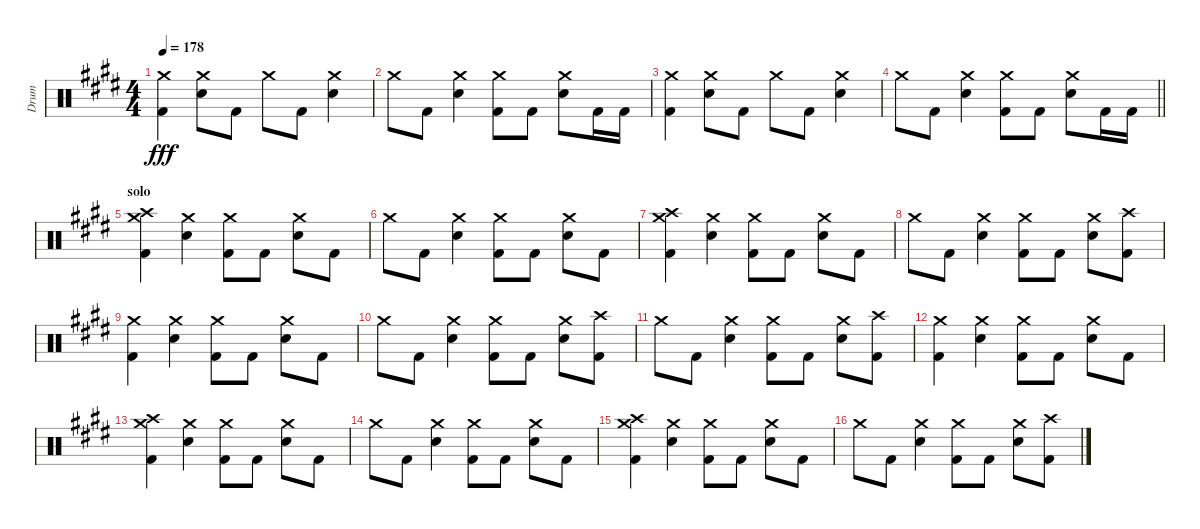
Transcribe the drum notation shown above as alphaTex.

\track ("Drum" "Drum") {instrument percussion}
\staff {score}
\articulation defaults
\ts (4 4)
\tempo 178
\clef neutral
\ks e
("Crash medium (hit)" "Kick (hit) 2").4{dy fff} ("Crash medium (hit)" "Electric Snare (hit)").8 "Kick (hit) 2".8 "Crash medium (hit)".8 "Kick (hit) 2".8 ("Crash medium (hit)" "Electric Snare (hit)").4 |
"Crash medium (hit)".8 "Kick (hit) 2".8 ("Crash medium (hit)" "Electric Snare (hit)").4 ("Crash medium (hit)" "Kick (hit) 2").8 "Kick (hit) 2".8 ("Crash medium (hit)" "Electric Snare (hit)").8 "Kick (hit) 2".16 "Kick (hit) 2".16 |
("Crash medium (hit)" "Kick (hit) 2").4 ("Crash medium (hit)" "Electric Snare (hit)").8 "Kick (hit) 2".8 "Crash medium (hit)".8 "Kick (hit) 2".8 ("Crash medium (hit)" "Electric Snare (hit)").4 |
\barLineRight lightlight "Crash medium (hit)".8 "Kick (hit) 2".8
("Crash medium (hit)" "Electric Snare (hit)").4 ("Crash medium (hit)" "Kick (hit) 2").8 "Kick (hit) 2".8 ("Crash medium (hit)" "Electric Snare (hit)").8 "Kick (hit) 2".16 "Kick (hit) 2".16 |
\section ("" "solo")
("Crash medium (hit)" "Crash high (hit)" "Kick (hit) 2").4 ("Crash medium (hit)" "Electric Snare (hit)").4 ("Crash medium (hit)" "Kick (hit) 2").8 "Kick (hit) 2".8 ("Crash medium (hit)" "Electric Snare (hit)").8 "Kick (hit) 2".8 |
"Crash medium (hit)".8 "Kick (hit) 2".8 ("Crash medium (hit)" "Electric Snare (hit)").4 ("Crash medium (hit)" "Kick (hit) 2").8 "Kick (hit) 2".8 ("Crash medium (hit)" "Electric Snare (hit)").8 "Kick (hit) 2".8 |
("Crash medium (hit)" "Crash high (hit)" "Kick (hit) 2").4 ("Crash medium (hit)" "Electric Snare (hit)").4 ("Crash medium (hit)" "Kick (hit) 2").8 "Kick (hit) 2".8 ("Crash medium (hit)" "Electric Snare (hit)").8 "Kick (hit) 2".8 |
"Crash medium (hit)".8 "Kick (hit) 2".8 ("Crash medium (hit)" "Electric Snare (hit)").4 ("Crash medium (hit)" "Kick (hit) 2").8 "Kick (hit) 2".8 ("Crash medium (hit)" "Electric Snare (hit)").8 ("Crash high (hit)" "Kick (hit) 2").8 |
("Crash medium (hit)" "Kick (hit) 2").4 ("Crash medium (hit)" "Electric Snare (hit)").4 ("Crash medium (hit)" "Kick (hit) 2").8 "Kick (hit) 2".8 ("Crash medium (hit)" "Electric Snare (hit)").8 "Kick (hit) 2".8 |
"Crash medium (hit)".8 "Kick (hit) 2".8 ("Crash medium (hit)" "Electric Snare (hit)").4 ("Crash medium (hit)" "Kick (hit) 2").8 "Kick (hit) 2".8 ("Crash medium (hit)" "Electric Snare (hit)").8 ("Crash high (hit)" "Kick (hit) 2").8 |
"Crash medium (hit)".8 "Kick (hit) 2".8 ("Crash medium (hit)" "Electric Snare (hit)").4 ("Crash medium (hit)" "Kick (hit) 2").8 "Kick (hit) 2".8 ("Crash medium (hit)" "Electric Snare (hit)").8 ("Crash high (hit)" "Kick (hit) 2").8 |
("Crash medium (hit)" "Kick (hit) 2").4 ("Crash medium (hit)" "Electric Snare (hit)").4 ("Crash medium (hit)" "Kick (hit) 2").8 "Kick (hit) 2".8 ("Crash medium (hit)" "Electric Snare (hit)").8 "Kick (hit) 2".8 |
("Crash medium (hit)" "Crash high (hit)" "Kick (hit) 2").4 ("Crash medium (hit)" "Electric Snare (hit)").4 ("Crash medium (hit)" "Kick (hit) 2").8 "Kick (hit) 2".8 ("Crash medium (hit)" "Electric Snare (hit)").8 "Kick (hit) 2".8 |
"Crash medium (hit)".8 "Kick (hit) 2".8 ("Crash medium (hit)" "Electric Snare (hit)").4 ("Crash medium (hit)" "Kick (hit) 2").8 "Kick (hit) 2".8 ("Crash medium (hit)" "Electric Snare (hit)").8 "Kick (hit) 2".8 |
("Crash medium (hit)" "Crash high (hit)" "Kick (hit) 2").4 ("Crash medium (hit)" "Electric Snare (hit)").4 ("Crash medium (hit)" "Kick (hit) 2").8 "Kick (hit) 2".8 ("Crash medium (hit)" "Electric Snare (hit)").8 "Kick (hit) 2".8 |
"Crash medium (hit)".8 "Kick (hit) 2".8 ("Crash medium (hit)" "Electric Snare (hit)").4 ("Crash medium (hit)" "Kick (hit) 2").8 "Kick (hit) 2".8 ("Crash medium (hit)" "Electric Snare (hit)").8 ("Crash high (hit)" "Kick (hit) 2").8
